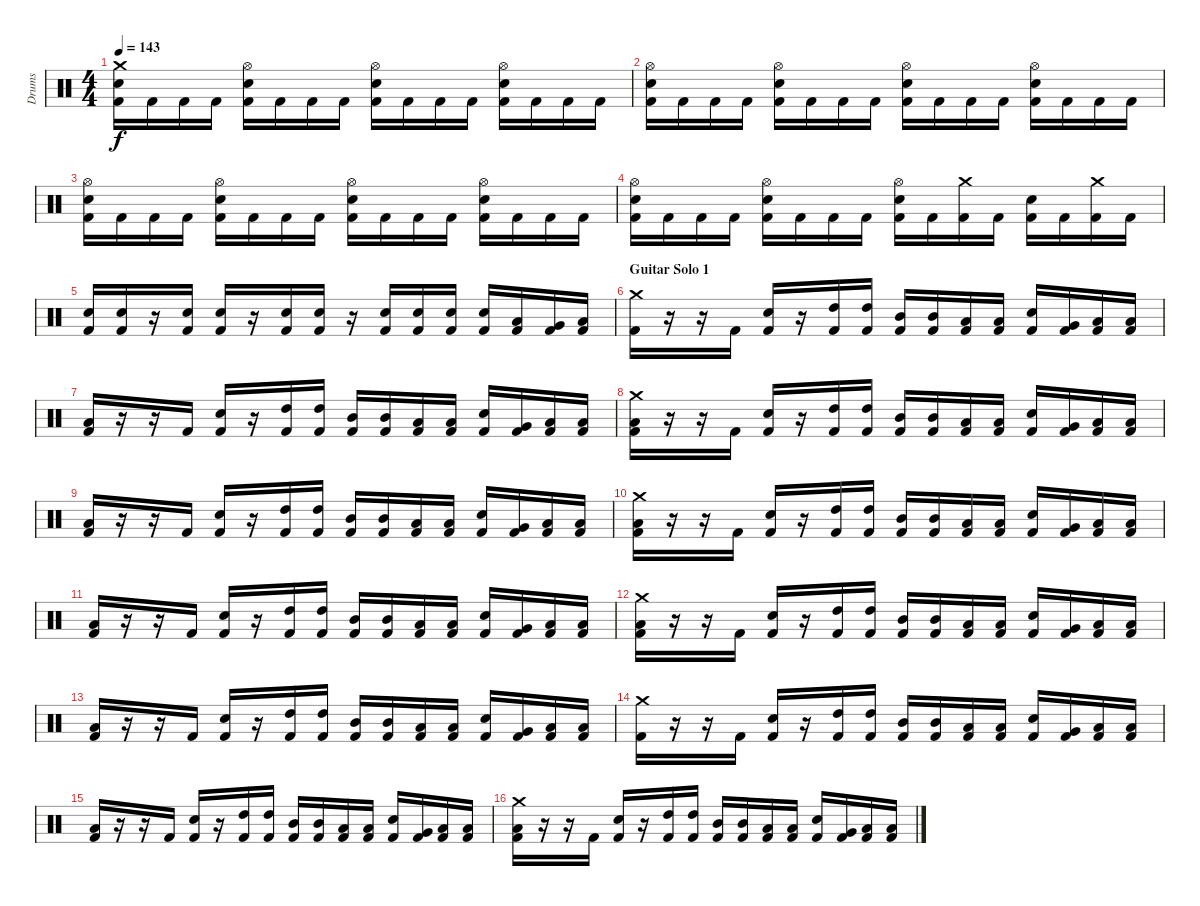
\track ("Drums" "Drums") {instrument percussion}
\staff {score}
\articulation defaults
\ts (4 4)
\tempo 143
\clef neutral
\ks c
("Crash medium (hit)" "Electric Snare (hit)" "Kick (hit) 2").16{dy f} "Kick (hit) 2".16 "Kick (hit) 2".16 "Kick (hit) 2".16 ("Hi-Hat (open)" "Electric Snare (hit)" "Kick (hit) 2").16 "Kick (hit) 2".16 "Kick (hit) 2".16 "Kick (hit) 2".16 ("Hi-Hat (open)" "Electric Snare (hit)" "Kick (hit) 2").16 "Kick (hit) 2".16 "Kick (hit) 2".16 "Kick (hit) 2".16 ("Hi-Hat (open)" "Electric Snare (hit)" "Kick (hit) 2").16 "Kick (hit) 2".16 "Kick (hit) 2".16 "Kick (hit) 2".16 |
("Hi-Hat (open)" "Electric Snare (hit)" "Kick (hit) 2").16 "Kick (hit) 2".16 "Kick (hit) 2".16 "Kick (hit) 2".16 ("Hi-Hat (open)" "Electric Snare (hit)" "Kick (hit) 2").16 "Kick (hit) 2".16 "Kick (hit) 2".16 "Kick (hit) 2".16 ("Hi-Hat (open)" "Electric Snare (hit)" "Kick (hit) 2").16 "Kick (hit) 2".16 "Kick (hit) 2".16 "Kick (hit) 2".16 ("Hi-Hat (open)" "Electric Snare (hit)" "Kick (hit) 2").16 "Kick (hit) 2".16 "Kick (hit) 2".16 "Kick (hit) 2".16 |
("Hi-Hat (open)" "Electric Snare (hit)" "Kick (hit) 2").16 "Kick (hit) 2".16 "Kick (hit) 2".16 "Kick (hit) 2".16 ("Hi-Hat (open)" "Electric Snare (hit)" "Kick (hit) 2").16 "Kick (hit) 2".16 "Kick (hit) 2".16 "Kick (hit) 2".16 ("Hi-Hat (open)" "Electric Snare (hit)" "Kick (hit) 2").16 "Kick (hit) 2".16 "Kick (hit) 2".16 "Kick (hit) 2".16 ("Hi-Hat (open)" "Electric Snare (hit)" "Kick (hit) 2").16 "Kick (hit) 2".16 "Kick (hit) 2".16 "Kick (hit) 2".16 |
("Hi-Hat (open)" "Electric Snare (hit)" "Kick (hit) 2").16 "Kick (hit) 2".16 "Kick (hit) 2".16 "Kick (hit) 2".16 ("Hi-Hat (open)" "Electric Snare (hit)" "Kick (hit) 2").16 "Kick (hit) 2".16 "Kick (hit) 2".16 "Kick (hit) 2".16 ("Hi-Hat (open)" "Electric Snare (hit)" "Kick (hit) 2").16 "Kick (hit) 2".16 ("Crash medium (hit)" "Kick (hit) 2").16 "Kick (hit) 2".16 ("Electric Snare (hit)" "Kick (hit) 2").16 "Kick (hit) 2".16 ("Crash medium (hit)" "Kick (hit) 2").16 "Kick (hit) 2".16 |
("Electric Snare (hit)" "Kick (hit) 2").16 ("Electric Snare (hit)" "Kick (hit) 2").16 r.16 ("Electric Snare (hit)" "Kick (hit) 2").16 ("Electric Snare (hit)" "Kick (hit) 2").16 r.16 ("Electric Snare (hit)" "Kick (hit) 2").16 ("Electric Snare (hit)" "Kick (hit) 2").16 r.16 ("Electric Snare (hit)" "Kick (hit) 2").16 ("Electric Snare (hit)" "Kick (hit) 2").16 ("Electric Snare (hit)" "Kick (hit) 2").16 ("Electric Snare (hit)" "Kick (hit) 2").16 ("Low Tom (hit)" "Kick (hit) 2").16 ("Very Low Tom (hit)" "Kick (hit) 2").16 ("Low Floor Tom (hit)" "Kick (hit) 2").16 |
\section ("" "Guitar Solo 1")
("Crash medium (hit)" "Kick (hit) 2").16 r.16 r.16 "Kick (hit) 2".16 ("Electric Snare (hit)" "Kick (hit) 2").16 r.16 ("High Tom (hit)" "Kick (hit) 2").16 ("High Tom (hit)" "Kick (hit) 2").16 ("Mid Tom (hit)" "Kick (hit) 2").16 ("Mid Tom (hit)" "Kick (hit) 2").16 ("Low Tom (hit)" "Kick (hit) 2").16 ("Low Tom (hit)" "Kick (hit) 2").16 ("Electric Snare (hit)" "Kick (hit) 2").16 ("Very Low Tom (hit)" "Kick (hit) 2").16 ("Low Floor Tom (hit)" "Kick (hit) 2").16 ("Low Floor Tom (hit)" "Kick (hit) 2").16 |
("Low Floor Tom (hit)" "Kick (hit) 2").16 r.16 r.16 "Kick (hit) 2".16 ("Electric Snare (hit)" "Kick (hit) 2").16 r.16 ("High Tom (hit)" "Kick (hit) 2").16 ("High Tom (hit)" "Kick (hit) 2").16 ("Mid Tom (hit)" "Kick (hit) 2").16 ("Mid Tom (hit)" "Kick (hit) 2").16 ("Low Tom (hit)" "Kick (hit) 2").16 ("Low Tom (hit)" "Kick (hit) 2").16 ("Electric Snare (hit)" "Kick (hit) 2").16 ("Very Low Tom (hit)" "Kick (hit) 2").16 ("Low Floor Tom (hit)" "Kick (hit) 2").16 ("Low Floor Tom (hit)" "Kick (hit) 2").16 |
("Crash medium (hit)" "Low Floor Tom (hit)" "Kick (hit) 2").16 r.16 r.16 "Kick (hit) 2".16 ("Electric Snare (hit)" "Kick (hit) 2").16 r.16 ("High Tom (hit)" "Kick (hit) 2").16 ("High Tom (hit)" "Kick (hit) 2").16 ("Mid Tom (hit)" "Kick (hit) 2").16 ("Mid Tom (hit)" "Kick (hit) 2").16 ("Low Tom (hit)" "Kick (hit) 2").16 ("Low Tom (hit)" "Kick (hit) 2").16 ("Electric Snare (hit)" "Kick (hit) 2").16 ("Very Low Tom (hit)" "Kick (hit) 2").16 ("Low Floor Tom (hit)" "Kick (hit) 2").16 ("Low Floor Tom (hit)" "Kick (hit) 2").16 |
("Low Floor Tom (hit)" "Kick (hit) 2").16 r.16 r.16 "Kick (hit) 2".16 ("Electric Snare (hit)" "Kick (hit) 2").16 r.16 ("High Tom (hit)" "Kick (hit) 2").16 ("High Tom (hit)" "Kick (hit) 2").16 ("Mid Tom (hit)" "Kick (hit) 2").16 ("Mid Tom (hit)" "Kick (hit) 2").16 ("Low Tom (hit)" "Kick (hit) 2").16 ("Low Tom (hit)" "Kick (hit) 2").16 ("Electric Snare (hit)" "Kick (hit) 2").16 ("Very Low Tom (hit)" "Kick (hit) 2").16 ("Low Floor Tom (hit)" "Kick (hit) 2").16 ("Low Floor Tom (hit)" "Kick (hit) 2").16 |
("Crash medium (hit)" "Low Floor Tom (hit)" "Kick (hit) 2").16 r.16 r.16 "Kick (hit) 2".16 ("Electric Snare (hit)" "Kick (hit) 2").16 r.16 ("High Tom (hit)" "Kick (hit) 2").16 ("High Tom (hit)" "Kick (hit) 2").16 ("Mid Tom (hit)" "Kick (hit) 2").16 ("Mid Tom (hit)" "Kick (hit) 2").16 ("Low Tom (hit)" "Kick (hit) 2").16 ("Low Tom (hit)" "Kick (hit) 2").16 ("Electric Snare (hit)" "Kick (hit) 2").16 ("Very Low Tom (hit)" "Kick (hit) 2").16 ("Low Floor Tom (hit)" "Kick (hit) 2").16 ("Low Floor Tom (hit)" "Kick (hit) 2").16 |
("Low Floor Tom (hit)" "Kick (hit) 2").16 r.16 r.16 "Kick (hit) 2".16 ("Electric Snare (hit)" "Kick (hit) 2").16 r.16 ("High Tom (hit)" "Kick (hit) 2").16 ("High Tom (hit)" "Kick (hit) 2").16 ("Mid Tom (hit)" "Kick (hit) 2").16 ("Mid Tom (hit)" "Kick (hit) 2").16 ("Low Tom (hit)" "Kick (hit) 2").16 ("Low Tom (hit)" "Kick (hit) 2").16 ("Electric Snare (hit)" "Kick (hit) 2").16 ("Very Low Tom (hit)" "Kick (hit) 2").16 ("Low Floor Tom (hit)" "Kick (hit) 2").16 ("Low Floor Tom (hit)" "Kick (hit) 2").16 |
("Crash medium (hit)" "Low Floor Tom (hit)" "Kick (hit) 2").16 r.16 r.16 "Kick (hit) 2".16 ("Electric Snare (hit)" "Kick (hit) 2").16 r.16 ("High Tom (hit)" "Kick (hit) 2").16 ("High Tom (hit)" "Kick (hit) 2").16 ("Mid Tom (hit)" "Kick (hit) 2").16 ("Mid Tom (hit)" "Kick (hit) 2").16 ("Low Tom (hit)" "Kick (hit) 2").16 ("Low Tom (hit)" "Kick (hit) 2").16 ("Electric Snare (hit)" "Kick (hit) 2").16 ("Very Low Tom (hit)" "Kick (hit) 2").16 ("Low Floor Tom (hit)" "Kick (hit) 2").16 ("Low Floor Tom (hit)" "Kick (hit) 2").16 |
("Low Floor Tom (hit)" "Kick (hit) 2").16 r.16 r.16 "Kick (hit) 2".16 ("Electric Snare (hit)" "Kick (hit) 2").16 r.16 ("High Tom (hit)" "Kick (hit) 2").16 ("High Tom (hit)" "Kick (hit) 2").16 ("Mid Tom (hit)" "Kick (hit) 2").16 ("Mid Tom (hit)" "Kick (hit) 2").16 ("Low Tom (hit)" "Kick (hit) 2").16 ("Low Tom (hit)" "Kick (hit) 2").16 ("Electric Snare (hit)" "Kick (hit) 2").16 ("Very Low Tom (hit)" "Kick (hit) 2").16 ("Low Floor Tom (hit)" "Kick (hit) 2").16 ("Low Floor Tom (hit)" "Kick (hit) 2").16 |
\section ("" "")
("Crash medium (hit)" "Kick (hit) 2").16 r.16 r.16 "Kick (hit) 2".16 ("Electric Snare (hit)" "Kick (hit) 2").16 r.16 ("High Tom (hit)" "Kick (hit) 2").16 ("High Tom (hit)" "Kick (hit) 2").16 ("Mid Tom (hit)" "Kick (hit) 2").16 ("Mid Tom (hit)" "Kick (hit) 2").16 ("Low Tom (hit)" "Kick (hit) 2").16 ("Low Tom (hit)" "Kick (hit) 2").16 ("Electric Snare (hit)" "Kick (hit) 2").16 ("Very Low Tom (hit)" "Kick (hit) 2").16 ("Low Floor Tom (hit)" "Kick (hit) 2").16 ("Low Floor Tom (hit)" "Kick (hit) 2").16 |
("Low Floor Tom (hit)" "Kick (hit) 2").16 r.16 r.16 "Kick (hit) 2".16 ("Electric Snare (hit)" "Kick (hit) 2").16 r.16 ("High Tom (hit)" "Kick (hit) 2").16 ("High Tom (hit)" "Kick (hit) 2").16 ("Mid Tom (hit)" "Kick (hit) 2").16 ("Mid Tom (hit)" "Kick (hit) 2").16 ("Low Tom (hit)" "Kick (hit) 2").16 ("Low Tom (hit)" "Kick (hit) 2").16 ("Electric Snare (hit)" "Kick (hit) 2").16 ("Very Low Tom (hit)" "Kick (hit) 2").16 ("Low Floor Tom (hit)" "Kick (hit) 2").16 ("Low Floor Tom (hit)" "Kick (hit) 2").16 |
("Crash medium (hit)" "Low Floor Tom (hit)" "Kick (hit) 2").16 r.16 r.16 "Kick (hit) 2".16 ("Electric Snare (hit)" "Kick (hit) 2").16 r.16 ("High Tom (hit)" "Kick (hit) 2").16 ("High Tom (hit)" "Kick (hit) 2").16 ("Mid Tom (hit)" "Kick (hit) 2").16 ("Mid Tom (hit)" "Kick (hit) 2").16 ("Low Tom (hit)" "Kick (hit) 2").16 ("Low Tom (hit)" "Kick (hit) 2").16 ("Electric Snare (hit)" "Kick (hit) 2").16 ("Very Low Tom (hit)" "Kick (hit) 2").16 ("Low Floor Tom (hit)" "Kick (hit) 2").16 ("Low Floor Tom (hit)" "Kick (hit) 2").16
